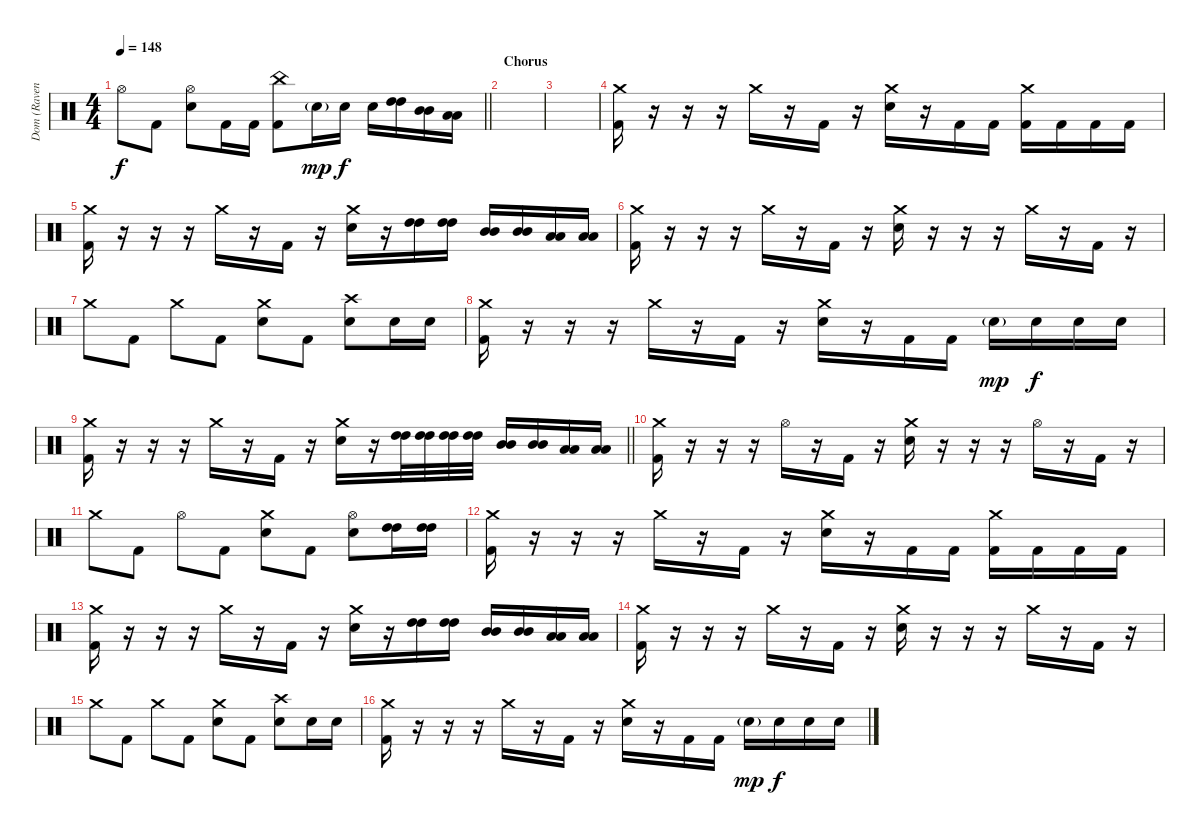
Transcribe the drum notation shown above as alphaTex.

\track ("Dom (Ravenface)" "Dom (Raven") {instrument percussion}
\staff {score}
\articulation defaults
\ts (4 4)
\tempo 148
\clef neutral
\barLineRight lightlight
\ks c "Hi-Hat (open)".8{dy f} "Kick (hit) 2".8
("Hi-Hat (open)" "Electric Snare (hit)").8 "Kick (hit) 2".16 "Kick (hit) 2".16 ("China (hit)" "Kick (hit) 2").8 "Electric Snare (hit)"{g}.16{dy mp} "Electric Snare (hit)".16{dy f} "Electric Snare (hit)".16 ("High Tom (hit)" "High Tom (hit)").16 ("Mid Tom (hit)" "Mid Tom (hit)").16 ("Low Tom (hit)" "Low Tom (hit)").16 |
\section ("" "Chorus")
|
|
("Crash medium (hit)" "Kick (hit) 2").16 r.16 r.16 r.16 "Crash medium (hit)".16 r.16 "Kick (hit) 2".16 r.16 ("Crash medium (hit)" "Electric Snare (hit)").16 r.16 "Kick (hit) 2".16 "Kick (hit) 2".16 ("Crash medium (hit)" "Kick (hit) 2").16 "Kick (hit) 2".16 "Kick (hit) 2".16 "Kick (hit) 2".16 |
("Crash medium (hit)" "Kick (hit) 2").16 r.16 r.16 r.16 "Crash medium (hit)".16 r.16 "Kick (hit) 2".16 r.16 ("Crash medium (hit)" "Electric Snare (hit)").16 r.16 ("High Tom (hit)" "High Tom (hit)").16 ("High Tom (hit)" "High Tom (hit)").16 ("Mid Tom (hit)" "Mid Tom (hit)").16 ("Mid Tom (hit)" "Mid Tom (hit)").16 ("Low Tom (hit)" "Low Tom (hit)").16 ("Low Tom (hit)" "Low Tom (hit)").16 |
("Crash medium (hit)" "Kick (hit) 2").16 r.16 r.16 r.16 "Crash medium (hit)".16 r.16 "Kick (hit) 2".16 r.16 ("Crash medium (hit)" "Electric Snare (hit)").16 r.16 r.16 r.16 "Crash medium (hit)".16 r.16 "Kick (hit) 2".16 r.16 |
"Crash medium (hit)".8 "Kick (hit) 2".8 "Crash medium (hit)".8 "Kick (hit) 2".8 ("Crash medium (hit)" "Electric Snare (hit)").8 "Kick (hit) 2".8 ("Crash high (hit)" "Electric Snare (hit)").8 "Electric Snare (hit)".16 "Electric Snare (hit)".16 |
("Crash medium (hit)" "Kick (hit) 2").16 r.16 r.16 r.16 "Crash medium (hit)".16 r.16 "Kick (hit) 2".16 r.16 ("Crash medium (hit)" "Electric Snare (hit)").16 r.16 "Kick (hit) 2".16 "Kick (hit) 2".16 "Electric Snare (hit)"{g}.16{dy mp} "Electric Snare (hit)".16{dy f} "Electric Snare (hit)".16 "Electric Snare (hit)".16 |
\barLineRight lightlight
("Crash medium (hit)" "Kick (hit) 2").16 r.16 r.16 r.16 "Crash medium (hit)".16 r.16 "Kick (hit) 2".16 r.16 ("Crash medium (hit)" "Electric Snare (hit)").16 r.16 ("High Tom (hit)" "High Tom (hit)").32 ("High Tom (hit)" "High Tom (hit)").32 ("High Tom (hit)" "High Tom (hit)").32 ("High Tom (hit)" "High Tom (hit)").32 ("Mid Tom (hit)" "Mid Tom (hit)").16 ("Mid Tom (hit)" "Mid Tom (hit)").16 ("Low Tom (hit)" "Low Tom (hit)").16 ("Low Tom (hit)" "Low Tom (hit)").16 |
("Crash medium (hit)" "Kick (hit) 2").16 r.16 r.16 r.16 "Hi-Hat (open)".16 r.16 "Kick (hit) 2".16 r.16 ("Crash medium (hit)" "Electric Snare (hit)").16 r.16 r.16 r.16 "Hi-Hat (open)".16 r.16 "Kick (hit) 2".16 r.16 |
"Crash medium (hit)".8 "Kick (hit) 2".8 "Hi-Hat (open)".8 "Kick (hit) 2".8 ("Crash medium (hit)" "Electric Snare (hit)").8 "Kick (hit) 2".8 ("Hi-Hat (open)" "Electric Snare (hit)").8 ("High Tom (hit)" "High Tom (hit)").16 ("High Tom (hit)" "High Tom (hit)").16 |
("Crash medium (hit)" "Kick (hit) 2").16 r.16 r.16 r.16 "Crash medium (hit)".16 r.16 "Kick (hit) 2".16 r.16 ("Crash medium (hit)" "Electric Snare (hit)").16 r.16 "Kick (hit) 2".16 "Kick (hit) 2".16 ("Crash medium (hit)" "Kick (hit) 2").16 "Kick (hit) 2".16 "Kick (hit) 2".16 "Kick (hit) 2".16 |
("Crash medium (hit)" "Kick (hit) 2").16 r.16 r.16 r.16 "Crash medium (hit)".16 r.16 "Kick (hit) 2".16 r.16 ("Crash medium (hit)" "Electric Snare (hit)").16 r.16 ("High Tom (hit)" "High Tom (hit)").16 ("High Tom (hit)" "High Tom (hit)").16 ("Mid Tom (hit)" "Mid Tom (hit)").16 ("Mid Tom (hit)" "Mid Tom (hit)").16 ("Low Tom (hit)" "Low Tom (hit)").16 ("Low Tom (hit)" "Low Tom (hit)").16 |
("Crash medium (hit)" "Kick (hit) 2").16 r.16 r.16 r.16 "Crash medium (hit)".16 r.16 "Kick (hit) 2".16 r.16 ("Crash medium (hit)" "Electric Snare (hit)").16 r.16 r.16 r.16 "Crash medium (hit)".16 r.16 "Kick (hit) 2".16 r.16 |
"Crash medium (hit)".8 "Kick (hit) 2".8 "Crash medium (hit)".8 "Kick (hit) 2".8 ("Crash medium (hit)" "Electric Snare (hit)").8 "Kick (hit) 2".8 ("Crash high (hit)" "Electric Snare (hit)").8 "Electric Snare (hit)".16 "Electric Snare (hit)".16 |
("Crash medium (hit)" "Kick (hit) 2").16 r.16 r.16 r.16 "Crash medium (hit)".16 r.16 "Kick (hit) 2".16 r.16 ("Crash medium (hit)" "Electric Snare (hit)").16 r.16 "Kick (hit) 2".16 "Kick (hit) 2".16 "Electric Snare (hit)"{g}.16{dy mp} "Electric Snare (hit)".16{dy f} "Electric Snare (hit)".16 "Electric Snare (hit)".16
